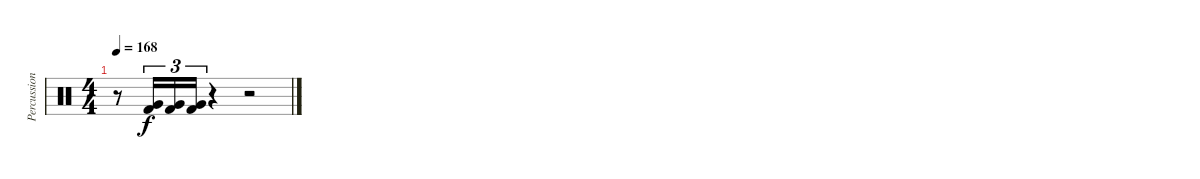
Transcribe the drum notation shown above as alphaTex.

\track ("Percussion" "Percussion") {instrument percussion}
\staff {score}
\articulation defaults
\ts (4 4)
\tempo 168
\clef neutral
\ks c
r.8{dy f} ("Very Low Tom (hit)" "Kick (hit) 2").16{tu (3 2)} ("Very Low Tom (hit)" "Kick (hit) 2").16{tu (3 2)} ("Very Low Tom (hit)" "Kick (hit) 2").16{tu (3 2)} r.4 r.2
